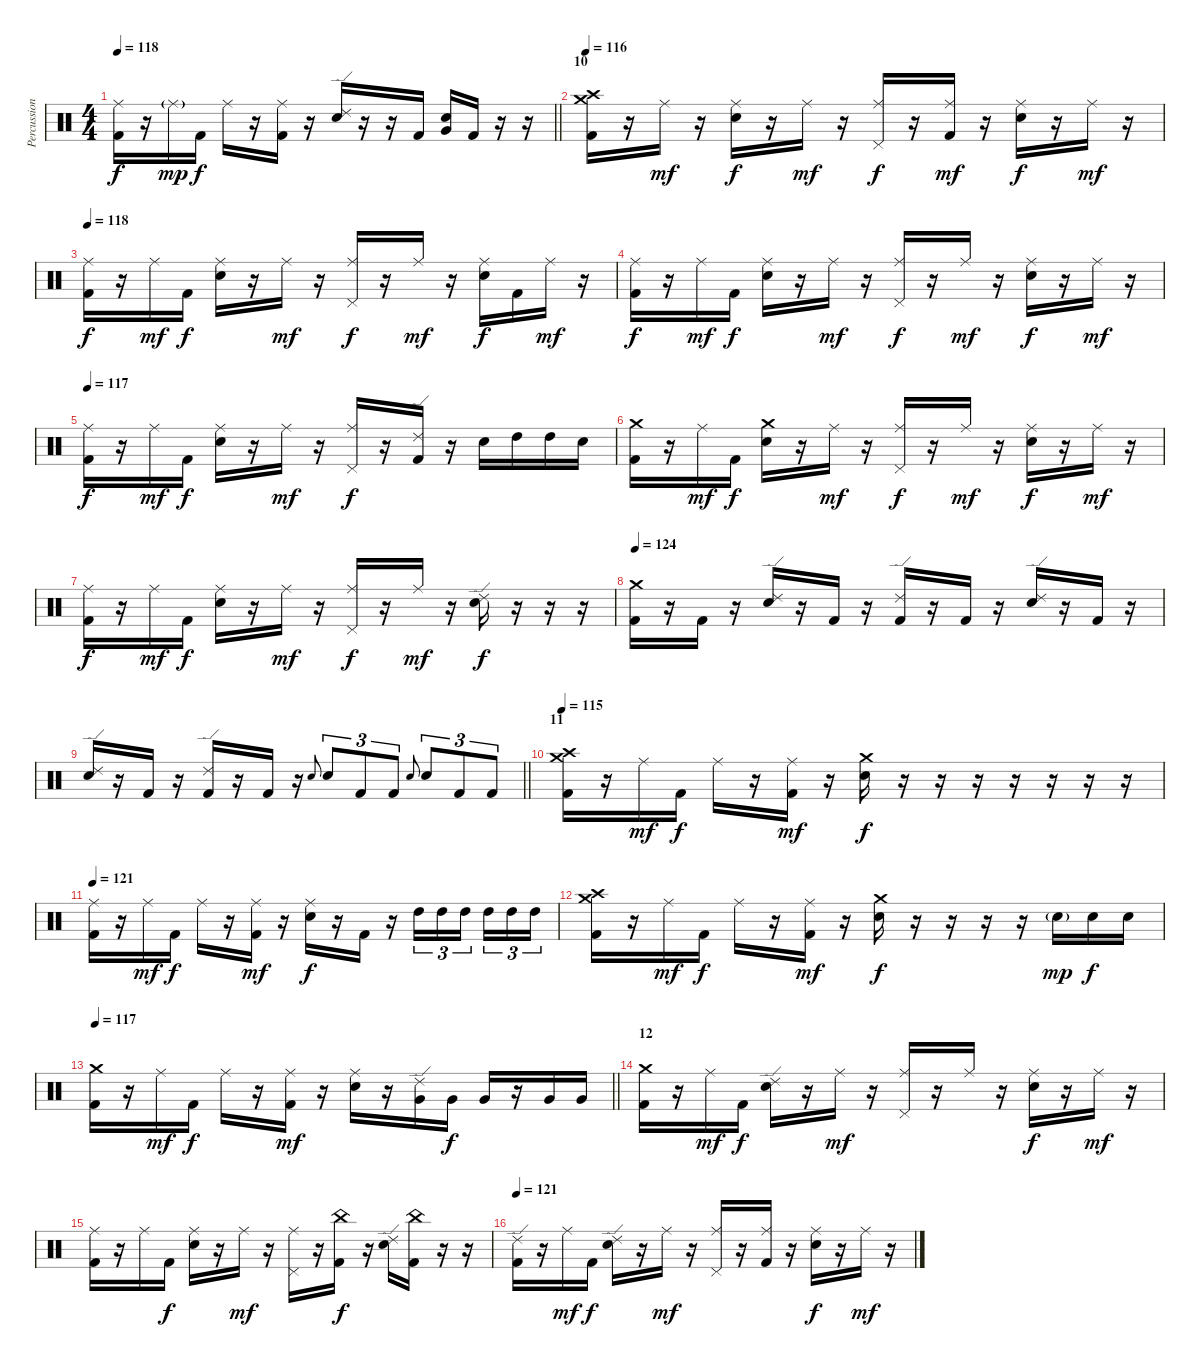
\track ("Percussion" "Percussion") {instrument percussion}
\staff {score}
\articulation defaults
\ts (4 4)
\tempo 118
\clef neutral
\barLineRight lightlight
\ks c
("Ride (middle)" "Kick (hit) 2").16{dy f} r.16 "Ride (middle)"{g}.16{dy mp} "Kick (hit) 2".16{dy f} "Ride (middle)".16 r.16 ("Ride (middle)" "Kick (hit) 2").16 r.16 ("Ride (edge) 2" "Snare (hit) 2").16 r.16 r.16 "Kick (hit) 2".16 ("Snare (hit) 2" "Very Low Tom (hit)").16{bu 60} "Kick (hit) 2".16 r.16 r.16 |
\section ("" "10")
\tempo 116
("Crash high (hit)" "Crash medium (hit)" "Kick (hit) 2").16 r.16 "Ride (middle)".16{dy mf} r.16 ("Ride (middle)" "Snare (hit) 2").16{dy f} r.16 "Ride (middle)".16{dy mf} r.16 ("Ride (middle)" "Pedal Hi-Hat (hit)").16{dy f} r.16 ("Ride (middle)" "Kick (hit) 2").16{dy mf} r.16 ("Ride (middle)" "Snare (hit) 2").16{dy f} r.16 "Ride (middle)".16{dy mf} r.16 |
\tempo 118
("Ride (middle)" "Kick (hit) 2").16{dy f} r.16 "Ride (middle)".16{dy mf} "Kick (hit) 2".16{dy f} ("Ride (middle)" "Snare (hit) 2").16 r.16 "Ride (middle)".16{dy mf} r.16 ("Ride (middle)" "Pedal Hi-Hat (hit)").16{dy f} r.16 "Ride (middle)".16{dy mf} r.16 ("Ride (middle)" "Snare (hit) 2").16{dy f} "Kick (hit) 2".16 "Ride (middle)".16{dy mf} r.16 |
("Ride (middle)" "Kick (hit) 2").16{dy f} r.16 "Ride (middle)".16{dy mf} "Kick (hit) 2".16{dy f} ("Ride (middle)" "Snare (hit) 2").16 r.16 "Ride (middle)".16{dy mf} r.16 ("Ride (middle)" "Pedal Hi-Hat (hit)").16{dy f} r.16 "Ride (middle)".16{dy mf} r.16 ("Ride (middle)" "Snare (hit) 2").16{dy f} r.16 "Ride (middle)".16{dy mf} r.16 |
\tempo 117
("Ride (middle)" "Kick (hit) 2").16{dy f} r.16 "Ride (middle)".16{dy mf} "Kick (hit) 2".16{dy f} ("Ride (middle)" "Snare (hit) 2").16 r.16 "Ride (middle)".16{dy mf} r.16 ("Ride (middle)" "Pedal Hi-Hat (hit)").16{dy f} r.16 ("Ride (edge) 2" "Kick (hit) 2").16 r.16 "Snare (hit) 2".16 "High Tom (hit)".16 "High Tom (hit)".16 "Snare (hit) 2".16 |
("Crash medium (hit)" "Kick (hit) 2").16 r.16 "Ride (middle)".16{dy mf} "Kick (hit) 2".16{dy f} ("Crash medium (hit)" "Snare (hit) 2").16 r.16 "Ride (middle)".16{dy mf} r.16 ("Ride (middle)" "Pedal Hi-Hat (hit)").16{dy f} r.16 "Ride (middle)".16{dy mf} r.16 ("Ride (middle)" "Snare (hit) 2").16{dy f} r.16 "Ride (middle)".16{dy mf} r.16 |
("Ride (middle)" "Kick (hit) 2").16{dy f} r.16 "Ride (middle)".16{dy mf} "Kick (hit) 2".16{dy f} ("Ride (middle)" "Snare (hit) 2").16 r.16 "Ride (middle)".16{dy mf} r.16 ("Ride (middle)" "Pedal Hi-Hat (hit)").16{dy f} r.16 "Ride (middle)".16{dy mf} r.16 ("Ride (edge) 2" "Snare (hit) 2").16{dy f} r.16 r.16 r.16 |
\tempo 124
("Crash medium (hit)" "Kick (hit) 2").16 r.16 "Kick (hit) 2".16 r.16 ("Ride (edge) 2" "Snare (hit) 2").16 r.16 "Kick (hit) 2".16 r.16 ("Ride (edge) 2" "Kick (hit) 2").16 r.16 "Kick (hit) 2".16 r.16 ("Ride (edge) 2" "Snare (hit) 2").16 r.16 "Kick (hit) 2".16 r.16 |
\barLineRight lightlight
("Ride (edge) 2" "Snare (hit) 2").16 r.16 "Kick (hit) 2".16 r.16 ("Ride (edge) 2" "Kick (hit) 2").16 r.16 "Kick (hit) 2".16 r.16 "Snare (hit) 2".8{gr onbeat} "Snare (hit) 2".8{tu (3 2)} "Kick (hit) 2".8{tu (3 2)} "Kick (hit) 2".8{tu (3 2)} "Snare (hit) 2".8{gr onbeat} "Snare (hit) 2".8{tu (3 2)} "Kick (hit) 2".8{tu (3 2)} "Kick (hit) 2".8{tu (3 2)} |
\section ("" "11")
\tempo 115
("Crash high (hit)" "Crash medium (hit)" "Kick (hit) 2").16 r.16 "Ride (middle)".16{dy mf} "Kick (hit) 2".16{dy f} "Ride (middle)".16 r.16 ("Ride (middle)" "Kick (hit) 2").16{dy mf} r.16 ("Crash medium (hit)" "Snare (hit) 2").16{dy f} r.16 r.16 r.16 r.16 r.16 r.16 r.16 |
\tempo 121
("Ride (middle)" "Kick (hit) 2").16 r.16 "Ride (middle)".16{dy mf} "Kick (hit) 2".16{dy f} "Ride (middle)".16 r.16 ("Ride (middle)" "Kick (hit) 2").16{dy mf} r.16 ("Ride (middle)" "Snare (hit) 2").16{dy f} r.16 "Kick (hit) 2".16 r.16 "High Tom (hit)".16{tu (3 2)} "High Tom (hit)".16{tu (3 2)} "High Tom (hit)".16{tu (3 2) beam splitsecondary} "High Tom (hit)".16{tu (3 2)} "High Tom (hit)".16{tu (3 2)} "High Tom (hit)".16{tu (3 2)} |
("Crash high (hit)" "Crash medium (hit)" "Kick (hit) 2").16 r.16 "Ride (middle)".16{dy mf} "Kick (hit) 2".16{dy f} "Ride (middle)".16 r.16 ("Ride (middle)" "Kick (hit) 2").16{dy mf} r.16 ("Crash medium (hit)" "Snare (hit) 2").16{dy f} r.16 r.16 r.16 r.16 "Snare (hit) 2"{g}.16{dy mp} "Snare (hit) 2".16{dy f} "Snare (hit) 2".16 |
\tempo 117
\barLineRight lightlight
("Crash medium (hit)" "Kick (hit) 2").16 r.16 "Ride (middle)".16{dy mf} "Kick (hit) 2".16{dy f} "Ride (middle)".16 r.16 ("Ride (middle)" "Kick (hit) 2").16{dy mf} r.16 ("Ride (middle)" "Snare (hit) 2").16 r.16 ("Ride (edge) 2" "Very Low Tom (hit)").16 "Very Low Tom (hit)".16{dy f} "Very Low Tom (hit)".16 r.16 "Very Low Tom (hit)".16 "Very Low Tom (hit)".16 |
\section ("" "12")
("Crash medium (hit)" "Kick (hit) 2").16 r.16 "Ride (middle)".16{dy mf} "Kick (hit) 2".16{dy f} ("Ride (edge) 2" "Snare (hit) 2").16 r.16 "Ride (middle)".16{dy mf} r.16 ("Ride (middle)" "Pedal Hi-Hat (hit)").16 r.16 "Ride (middle)".16 r.16 ("Ride (middle)" "Snare (hit) 2").16{dy f} r.16 "Ride (middle)".16{dy mf} r.16 |
("Ride (middle)" "Kick (hit) 2").16 r.16 "Ride (middle)".16 "Kick (hit) 2".16{dy f} ("Ride (middle)" "Snare (hit) 2").16 r.16 "Ride (middle)".16{dy mf} r.16 ("Ride (middle)" "Pedal Hi-Hat (hit)").16 r.16 ("China (hit)" "Kick (hit) 2").16{dy f} r.16 ("Ride (edge) 2" "Snare (hit) 2").16 ("China (hit)" "Kick (hit) 2").16 r.16 r.16 |
\tempo 121
("Ride (edge) 2" "Kick (hit) 2").16 r.16 "Ride (middle)".16{dy mf} "Kick (hit) 2".16{dy f} ("Ride (edge) 2" "Snare (hit) 2").16 r.16 "Ride (middle)".16{dy mf} r.16 ("Ride (middle)" "Pedal Hi-Hat (hit)").16 r.16 ("Ride (middle)" "Kick (hit) 2").16 r.16 ("Ride (middle)" "Snare (hit) 2").16{dy f} r.16 "Ride (middle)".16{dy mf} r.16
